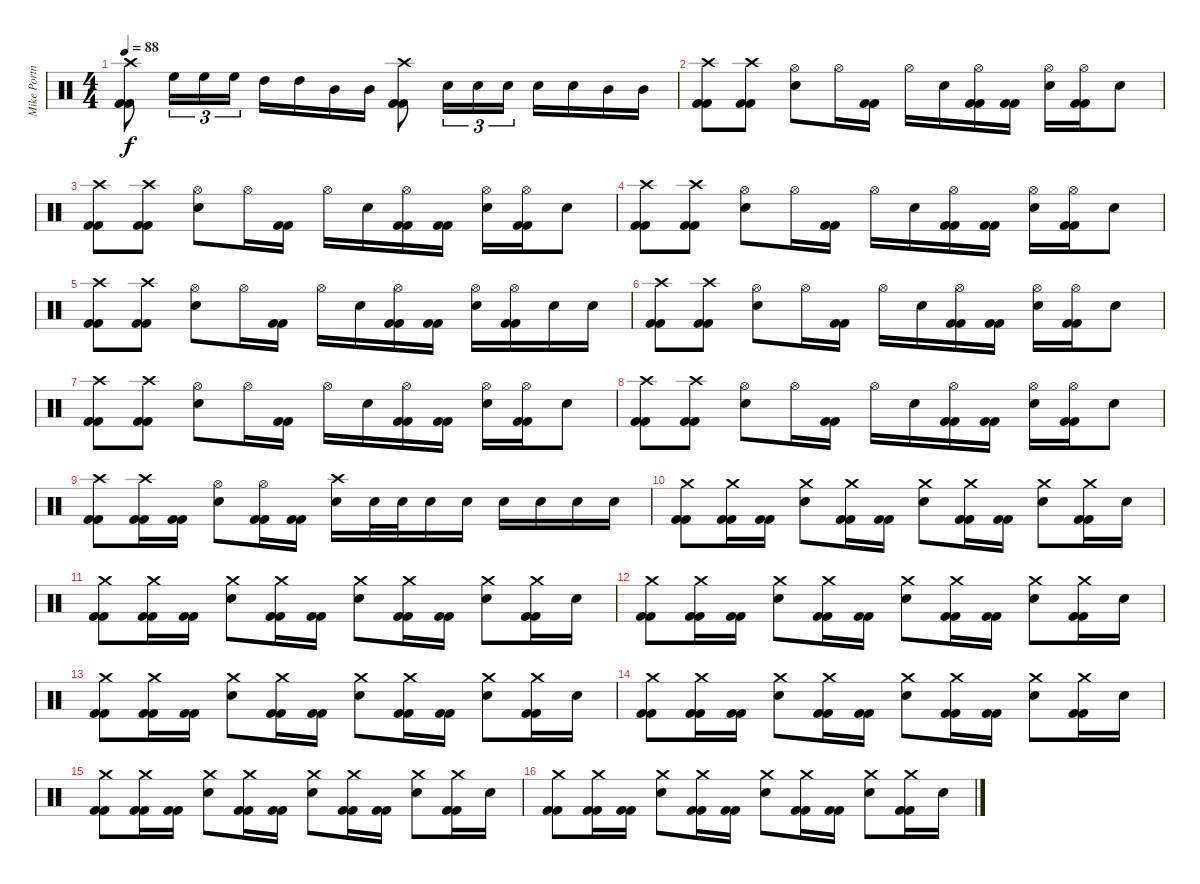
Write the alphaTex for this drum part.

\track ("Mike Portnoy" "Mike Portn") {instrument percussion}
\staff {score}
\articulation defaults
\ts (4 4)
\tempo 88
\clef neutral
\ks c
("Crash high (hit)" "Kick (hit) 2" "Kick (hit) 2").8{dy f} "High Floor Tom (hit)".16{tu (3 2)} "High Floor Tom (hit)".16{tu (3 2)} "High Floor Tom (hit)".16{tu (3 2)} "High Tom (hit)".16 "High Tom (hit)".16 "Mid Tom (hit)".16 "Mid Tom (hit)".16 ("Crash high (hit)" "Kick (hit) 2" "Kick (hit) 2").8 "Snare (hit) 2".16{tu (3 2)} "Snare (hit) 2".16{tu (3 2)} "Snare (hit) 2".16{tu (3 2)} "Snare (hit) 2".16 "Snare (hit) 2".16 "Mid Tom (hit)".16 "Mid Tom (hit)".16 |
("Crash high (hit)" "Kick (hit) 2" "Kick (hit) 2").8 ("Crash high (hit)" "Kick (hit) 2" "Kick (hit) 2").8 ("Hi-Hat (open)" "Snare (hit) 2").8 "Hi-Hat (open)".16 ("Kick (hit) 2" "Kick (hit) 2").16 "Hi-Hat (open)".16 "Snare (hit) 2".16 ("Hi-Hat (open)" "Kick (hit) 2" "Kick (hit) 2").16 ("Kick (hit) 2" "Kick (hit) 2").16 ("Hi-Hat (open)" "Snare (hit) 2").16 ("Hi-Hat (open)" "Kick (hit) 2" "Kick (hit) 2").16 "Snare (hit) 2".8 |
("Crash high (hit)" "Kick (hit) 2" "Kick (hit) 2").8 ("Crash high (hit)" "Kick (hit) 2" "Kick (hit) 2").8 ("Hi-Hat (open)" "Snare (hit) 2").8 "Hi-Hat (open)".16 ("Kick (hit) 2" "Kick (hit) 2").16 "Hi-Hat (open)".16 "Snare (hit) 2".16 ("Hi-Hat (open)" "Kick (hit) 2" "Kick (hit) 2").16 ("Kick (hit) 2" "Kick (hit) 2").16 ("Hi-Hat (open)" "Snare (hit) 2").16 ("Hi-Hat (open)" "Kick (hit) 2" "Kick (hit) 2").16 "Snare (hit) 2".8 |
("Crash high (hit)" "Kick (hit) 2" "Kick (hit) 2").8 ("Crash high (hit)" "Kick (hit) 2" "Kick (hit) 2").8 ("Hi-Hat (open)" "Snare (hit) 2").8 "Hi-Hat (open)".16 ("Kick (hit) 2" "Kick (hit) 2").16 "Hi-Hat (open)".16 "Snare (hit) 2".16 ("Hi-Hat (open)" "Kick (hit) 2" "Kick (hit) 2").16 ("Kick (hit) 2" "Kick (hit) 2").16 ("Hi-Hat (open)" "Snare (hit) 2").16 ("Hi-Hat (open)" "Kick (hit) 2" "Kick (hit) 2").16 "Snare (hit) 2".8 |
("Crash high (hit)" "Kick (hit) 2" "Kick (hit) 2").8 ("Crash high (hit)" "Kick (hit) 2" "Kick (hit) 2").8 ("Hi-Hat (open)" "Snare (hit) 2").8 "Hi-Hat (open)".16 ("Kick (hit) 2" "Kick (hit) 2").16 "Hi-Hat (open)".16 "Snare (hit) 2".16 ("Hi-Hat (open)" "Kick (hit) 2" "Kick (hit) 2").16 ("Kick (hit) 2" "Kick (hit) 2").16 ("Hi-Hat (open)" "Snare (hit) 2").16 ("Hi-Hat (open)" "Kick (hit) 2" "Kick (hit) 2").16 "Snare (hit) 2".16 "Snare (hit) 2".16 |
("Crash high (hit)" "Kick (hit) 2" "Kick (hit) 2").8 ("Crash high (hit)" "Kick (hit) 2" "Kick (hit) 2").8 ("Hi-Hat (open)" "Snare (hit) 2").8 "Hi-Hat (open)".16 ("Kick (hit) 2" "Kick (hit) 2").16 "Hi-Hat (open)".16 "Snare (hit) 2".16 ("Hi-Hat (open)" "Kick (hit) 2" "Kick (hit) 2").16 ("Kick (hit) 2" "Kick (hit) 2").16 ("Hi-Hat (open)" "Snare (hit) 2").16 ("Hi-Hat (open)" "Kick (hit) 2" "Kick (hit) 2").16 "Snare (hit) 2".8 |
("Crash high (hit)" "Kick (hit) 2" "Kick (hit) 2").8 ("Crash high (hit)" "Kick (hit) 2" "Kick (hit) 2").8 ("Hi-Hat (open)" "Snare (hit) 2").8 "Hi-Hat (open)".16 ("Kick (hit) 2" "Kick (hit) 2").16 "Hi-Hat (open)".16 "Snare (hit) 2".16 ("Hi-Hat (open)" "Kick (hit) 2" "Kick (hit) 2").16 ("Kick (hit) 2" "Kick (hit) 2").16 ("Hi-Hat (open)" "Snare (hit) 2").16 ("Hi-Hat (open)" "Kick (hit) 2" "Kick (hit) 2").16 "Snare (hit) 2".8 |
("Crash high (hit)" "Kick (hit) 2" "Kick (hit) 2").8 ("Crash high (hit)" "Kick (hit) 2" "Kick (hit) 2").8 ("Hi-Hat (open)" "Snare (hit) 2").8 "Hi-Hat (open)".16 ("Kick (hit) 2" "Kick (hit) 2").16 "Hi-Hat (open)".16 "Snare (hit) 2".16 ("Hi-Hat (open)" "Kick (hit) 2" "Kick (hit) 2").16 ("Kick (hit) 2" "Kick (hit) 2").16 ("Hi-Hat (open)" "Snare (hit) 2").16 ("Hi-Hat (open)" "Kick (hit) 2" "Kick (hit) 2").16 "Snare (hit) 2".8 |
("Crash high (hit)" "Kick (hit) 2" "Kick (hit) 2").8 ("Crash high (hit)" "Kick (hit) 2" "Kick (hit) 2").16 ("Kick (hit) 2" "Kick (hit) 2").16 ("Hi-Hat (open)" "Snare (hit) 2").8 ("Hi-Hat (open)" "Kick (hit) 2" "Kick (hit) 2").16 ("Kick (hit) 2" "Kick (hit) 2").16 ("Crash high (hit)" "Snare (hit) 2").16 "Snare (hit) 2".32 "Snare (hit) 2".32 "Snare (hit) 2".16 "Snare (hit) 2".16 "Snare (hit) 2".16 "Snare (hit) 2".16 "Snare (hit) 2".16 "Snare (hit) 2".16 |
("Crash medium (hit)" "Kick (hit) 2" "Kick (hit) 2").8 ("Crash medium (hit)" "Kick (hit) 2" "Kick (hit) 2").16 ("Kick (hit) 2" "Kick (hit) 2").16 ("Crash medium (hit)" "Snare (hit) 2").8 ("Crash medium (hit)" "Kick (hit) 2" "Kick (hit) 2").16 ("Kick (hit) 2" "Kick (hit) 2").16 ("Crash medium (hit)" "Snare (hit) 2").8 ("Crash medium (hit)" "Kick (hit) 2" "Kick (hit) 2").16 ("Kick (hit) 2" "Kick (hit) 2").16 ("Crash medium (hit)" "Snare (hit) 2").8 ("Crash medium (hit)" "Kick (hit) 2" "Kick (hit) 2").16 "Snare (hit) 2".16 |
("Crash medium (hit)" "Kick (hit) 2" "Kick (hit) 2").8 ("Crash medium (hit)" "Kick (hit) 2" "Kick (hit) 2").16 ("Kick (hit) 2" "Kick (hit) 2").16 ("Crash medium (hit)" "Snare (hit) 2").8 ("Crash medium (hit)" "Kick (hit) 2" "Kick (hit) 2").16 ("Kick (hit) 2" "Kick (hit) 2").16 ("Crash medium (hit)" "Snare (hit) 2").8 ("Crash medium (hit)" "Kick (hit) 2" "Kick (hit) 2").16 ("Kick (hit) 2" "Kick (hit) 2").16 ("Crash medium (hit)" "Snare (hit) 2").8 ("Crash medium (hit)" "Kick (hit) 2" "Kick (hit) 2").16 "Snare (hit) 2".16 |
("Crash medium (hit)" "Kick (hit) 2" "Kick (hit) 2").8 ("Crash medium (hit)" "Kick (hit) 2" "Kick (hit) 2").16 ("Kick (hit) 2" "Kick (hit) 2").16 ("Crash medium (hit)" "Snare (hit) 2").8 ("Crash medium (hit)" "Kick (hit) 2" "Kick (hit) 2").16 ("Kick (hit) 2" "Kick (hit) 2").16 ("Crash medium (hit)" "Snare (hit) 2").8 ("Crash medium (hit)" "Kick (hit) 2" "Kick (hit) 2").16 ("Kick (hit) 2" "Kick (hit) 2").16 ("Crash medium (hit)" "Snare (hit) 2").8 ("Crash medium (hit)" "Kick (hit) 2" "Kick (hit) 2").16 "Snare (hit) 2".16 |
("Crash medium (hit)" "Kick (hit) 2" "Kick (hit) 2").8 ("Crash medium (hit)" "Kick (hit) 2" "Kick (hit) 2").16 ("Kick (hit) 2" "Kick (hit) 2").16 ("Crash medium (hit)" "Snare (hit) 2").8 ("Crash medium (hit)" "Kick (hit) 2" "Kick (hit) 2").16 ("Kick (hit) 2" "Kick (hit) 2").16 ("Crash medium (hit)" "Snare (hit) 2").8 ("Crash medium (hit)" "Kick (hit) 2" "Kick (hit) 2").16 ("Kick (hit) 2" "Kick (hit) 2").16 ("Crash medium (hit)" "Snare (hit) 2").8 ("Crash medium (hit)" "Kick (hit) 2" "Kick (hit) 2").16 "Snare (hit) 2".16 |
("Crash medium (hit)" "Kick (hit) 2" "Kick (hit) 2").8 ("Crash medium (hit)" "Kick (hit) 2" "Kick (hit) 2").16 ("Kick (hit) 2" "Kick (hit) 2").16 ("Crash medium (hit)" "Snare (hit) 2").8 ("Crash medium (hit)" "Kick (hit) 2" "Kick (hit) 2").16 ("Kick (hit) 2" "Kick (hit) 2").16 ("Crash medium (hit)" "Snare (hit) 2").8 ("Crash medium (hit)" "Kick (hit) 2" "Kick (hit) 2").16 ("Kick (hit) 2" "Kick (hit) 2").16 ("Crash medium (hit)" "Snare (hit) 2").8 ("Crash medium (hit)" "Kick (hit) 2" "Kick (hit) 2").16 "Snare (hit) 2".16 |
("Crash medium (hit)" "Kick (hit) 2" "Kick (hit) 2").8 ("Crash medium (hit)" "Kick (hit) 2" "Kick (hit) 2").16 ("Kick (hit) 2" "Kick (hit) 2").16 ("Crash medium (hit)" "Snare (hit) 2").8 ("Crash medium (hit)" "Kick (hit) 2" "Kick (hit) 2").16 ("Kick (hit) 2" "Kick (hit) 2").16 ("Crash medium (hit)" "Snare (hit) 2").8 ("Crash medium (hit)" "Kick (hit) 2" "Kick (hit) 2").16 ("Kick (hit) 2" "Kick (hit) 2").16 ("Crash medium (hit)" "Snare (hit) 2").8 ("Crash medium (hit)" "Kick (hit) 2" "Kick (hit) 2").16 "Snare (hit) 2".16 |
("Crash medium (hit)" "Kick (hit) 2" "Kick (hit) 2").8 ("Crash medium (hit)" "Kick (hit) 2" "Kick (hit) 2").16 ("Kick (hit) 2" "Kick (hit) 2").16 ("Crash medium (hit)" "Snare (hit) 2").8 ("Crash medium (hit)" "Kick (hit) 2" "Kick (hit) 2").16 ("Kick (hit) 2" "Kick (hit) 2").16 ("Crash medium (hit)" "Snare (hit) 2").8 ("Crash medium (hit)" "Kick (hit) 2" "Kick (hit) 2").16 ("Kick (hit) 2" "Kick (hit) 2").16 ("Crash medium (hit)" "Snare (hit) 2").8 ("Crash medium (hit)" "Kick (hit) 2" "Kick (hit) 2").16 "Snare (hit) 2".16
